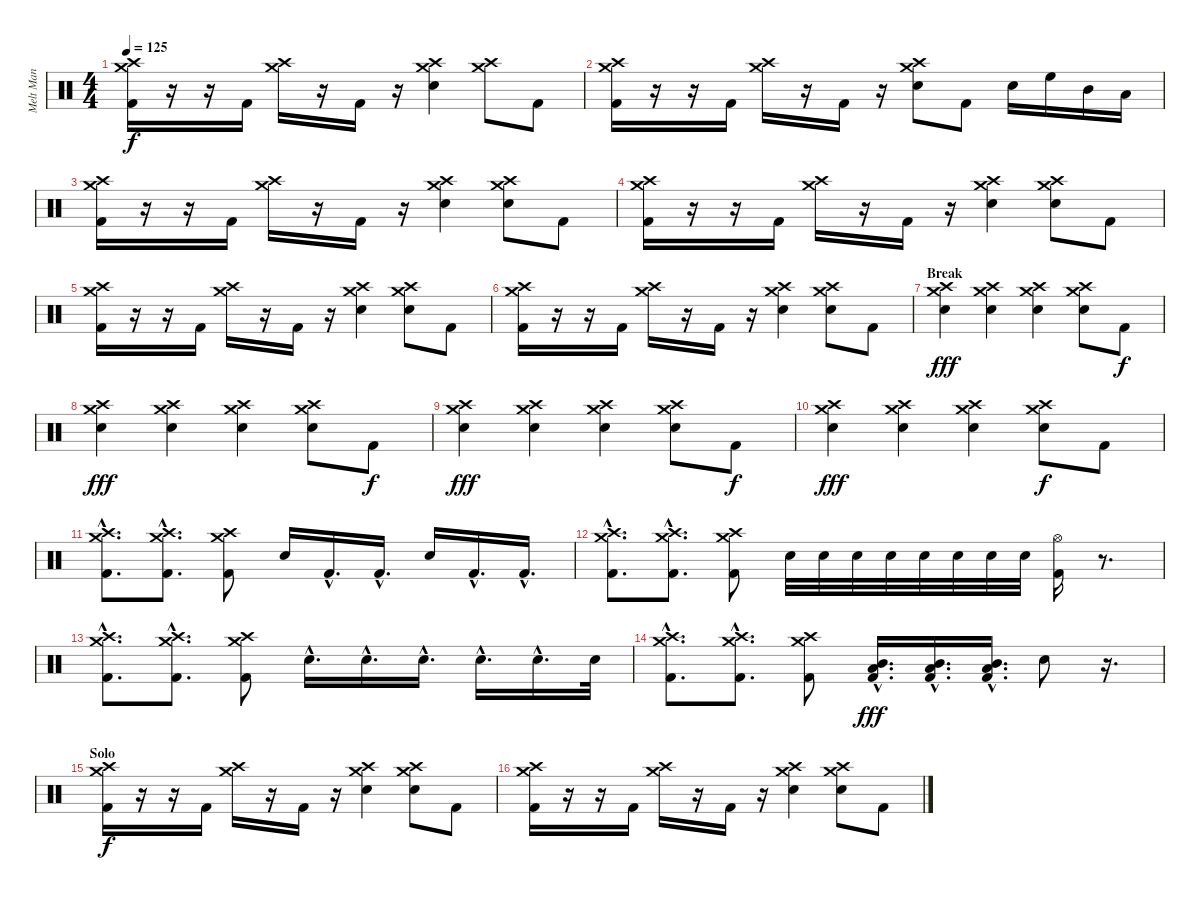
\track ("Melt Man" "Melt Man") {instrument percussion}
\staff {score}
\articulation defaults
\ts (4 4)
\tempo 125
\clef neutral
\ks c
("Crash high (hit)" "Crash medium (hit)" "Kick (hit) 2").16{dy f} r.16 r.16 "Kick (hit) 2".16 ("Crash high (hit)" "Crash medium (hit)").16 r.16 "Kick (hit) 2".16 r.16 ("Crash high (hit)" "Crash medium (hit)" "Snare (hit) 2").4 ("Crash high (hit)" "Crash medium (hit)").8 "Kick (hit) 2".8 |
("Crash high (hit)" "Crash medium (hit)" "Kick (hit) 2").16 r.16 r.16 "Kick (hit) 2".16 ("Crash high (hit)" "Crash medium (hit)").16 r.16 "Kick (hit) 2".16 r.16 ("Crash medium (hit)" "Crash high (hit)" "Snare (hit) 2").8 "Kick (hit) 2".8 "Snare (hit) 2".16 "High Floor Tom (hit)".16 "Mid Tom (hit)".16 "Low Tom (hit)".16 |
("Crash high (hit)" "Crash medium (hit)" "Kick (hit) 2").16 r.16 r.16 "Kick (hit) 2".16 ("Crash high (hit)" "Crash medium (hit)").16 r.16 "Kick (hit) 2".16 r.16 ("Crash high (hit)" "Crash medium (hit)" "Snare (hit) 2").4 ("Crash high (hit)" "Crash medium (hit)" "Snare (hit) 2").8 "Kick (hit) 2".8 |
("Crash high (hit)" "Crash medium (hit)" "Kick (hit) 2").16 r.16 r.16 "Kick (hit) 2".16 ("Crash high (hit)" "Crash medium (hit)").16 r.16 "Kick (hit) 2".16 r.16 ("Crash high (hit)" "Crash medium (hit)" "Snare (hit) 2").4 ("Crash high (hit)" "Crash medium (hit)" "Snare (hit) 2").8 "Kick (hit) 2".8 |
("Crash high (hit)" "Crash medium (hit)" "Kick (hit) 2").16 r.16 r.16 "Kick (hit) 2".16 ("Crash high (hit)" "Crash medium (hit)").16 r.16 "Kick (hit) 2".16 r.16 ("Crash high (hit)" "Crash medium (hit)" "Snare (hit) 2").4 ("Crash high (hit)" "Crash medium (hit)" "Snare (hit) 2").8 "Kick (hit) 2".8 |
("Crash high (hit)" "Crash medium (hit)" "Kick (hit) 2").16 r.16 r.16 "Kick (hit) 2".16 ("Crash high (hit)" "Crash medium (hit)").16 r.16 "Kick (hit) 2".16 r.16 ("Crash high (hit)" "Crash medium (hit)" "Snare (hit) 2").4 ("Crash high (hit)" "Crash medium (hit)" "Snare (hit) 2").8 "Kick (hit) 2".8 |
\section ("" "Break")
("Crash high (hit)" "Crash medium (hit)" "Snare (hit) 2").4{dy fff} ("Crash medium (hit)" "Crash high (hit)" "Snare (hit) 2").4 ("Crash high (hit)" "Crash medium (hit)" "Snare (hit) 2").4 ("Crash medium (hit)" "Crash high (hit)" "Snare (hit) 2").8 "Kick (hit) 2".8{dy f} |
("Crash high (hit)" "Crash medium (hit)" "Snare (hit) 2").4{dy fff} ("Crash medium (hit)" "Crash high (hit)" "Snare (hit) 2").4 ("Crash high (hit)" "Crash medium (hit)" "Snare (hit) 2").4 ("Crash medium (hit)" "Crash high (hit)" "Snare (hit) 2").8 "Kick (hit) 2".8{dy f} |
("Crash high (hit)" "Crash medium (hit)" "Snare (hit) 2").4{dy fff} ("Crash medium (hit)" "Crash high (hit)" "Snare (hit) 2").4 ("Crash high (hit)" "Crash medium (hit)" "Snare (hit) 2").4 ("Crash medium (hit)" "Crash high (hit)" "Snare (hit) 2").8 "Kick (hit) 2".8{dy f} |
("Crash high (hit)" "Crash medium (hit)" "Snare (hit) 2").4{dy fff} ("Crash medium (hit)" "Crash high (hit)" "Snare (hit) 2").4 ("Crash high (hit)" "Crash medium (hit)" "Snare (hit) 2").4 ("Crash medium (hit)" "Crash high (hit)" "Snare (hit) 2").8{dy f} "Kick (hit) 2".8 |
("Crash medium (hit)"{hac} "Crash high (hit)"{hac} "Kick (hit) 2"{hac}).8{d} ("Crash high (hit)"{hac} "Crash medium (hit)"{hac} "Kick (hit) 2"{hac}).8{d} ("Crash high (hit)" "Crash medium (hit)" "Kick (hit) 2").8 "Snare (hit) 2".16 "Kick (hit) 2"{hac}.16{d} "Kick (hit) 2"{hac}.16{d} "Snare (hit) 2".16 "Kick (hit) 2"{hac}.16{d} "Kick (hit) 2"{hac}.16{d} |
("Crash medium (hit)"{hac} "Crash high (hit)"{hac} "Kick (hit) 2"{hac}).8{d} ("Crash medium (hit)"{hac} "Crash high (hit)"{hac} "Kick (hit) 2"{hac}).8{d} ("Crash medium (hit)" "Crash high (hit)" "Kick (hit) 2").8 "Snare (hit) 2".32 "Snare (hit) 2".32 "Snare (hit) 2".32 "Snare (hit) 2".32 "Snare (hit) 2".32 "Snare (hit) 2".32 "Snare (hit) 2".32 "Snare (hit) 2".32 ("Hi-Hat (open)" "Kick (hit) 2").16 r.8{d} |
("Crash medium (hit)"{hac} "Crash high (hit)"{hac} "Kick (hit) 2"{hac}).8{d} ("Crash high (hit)"{hac} "Crash medium (hit)"{hac} "Kick (hit) 2"{hac}).8{d} ("Crash high (hit)" "Crash medium (hit)" "Kick (hit) 2").8 "Snare (hit) 2"{hac}.16{d} "Snare (hit) 2"{hac}.16{d} "Snare (hit) 2"{hac}.16{d} "Snare (hit) 2"{hac}.16{d} "Snare (hit) 2"{hac}.16{d} "Snare (hit) 2".32 |
("Crash medium (hit)"{hac} "Crash high (hit)"{hac} "Kick (hit) 2"{hac}).8{d} ("Crash medium (hit)"{hac} "Crash high (hit)"{hac} "Kick (hit) 2"{hac}).8{d} ("Crash medium (hit)" "Crash high (hit)" "Kick (hit) 2").8 ("Mid Tom (hit)"{hac} "Low Tom (hit)"{hac} "Kick (hit) 2"{hac}).16{d dy fff} ("Mid Tom (hit)"{hac} "Low Tom (hit)"{hac} "Kick (hit) 2"{hac}).16{d} ("Mid Tom (hit)"{hac} "Low Tom (hit)"{hac} "Kick (hit) 2"{hac}).16{d} "Snare (hit) 2".8 r.16{d} |
\section ("" "Solo ")
("Crash high (hit)" "Crash medium (hit)" "Kick (hit) 2").16{dy f} r.16 r.16 "Kick (hit) 2".16 ("Crash high (hit)" "Crash medium (hit)").16 r.16 "Kick (hit) 2".16 r.16 ("Crash high (hit)" "Crash medium (hit)" "Snare (hit) 2").4 ("Crash high (hit)" "Crash medium (hit)" "Snare (hit) 2").8 "Kick (hit) 2".8 |
("Crash high (hit)" "Crash medium (hit)" "Kick (hit) 2").16 r.16 r.16 "Kick (hit) 2".16 ("Crash high (hit)" "Crash medium (hit)").16 r.16 "Kick (hit) 2".16 r.16 ("Crash high (hit)" "Crash medium (hit)" "Snare (hit) 2").4 ("Crash high (hit)" "Crash medium (hit)" "Snare (hit) 2").8 "Kick (hit) 2".8
